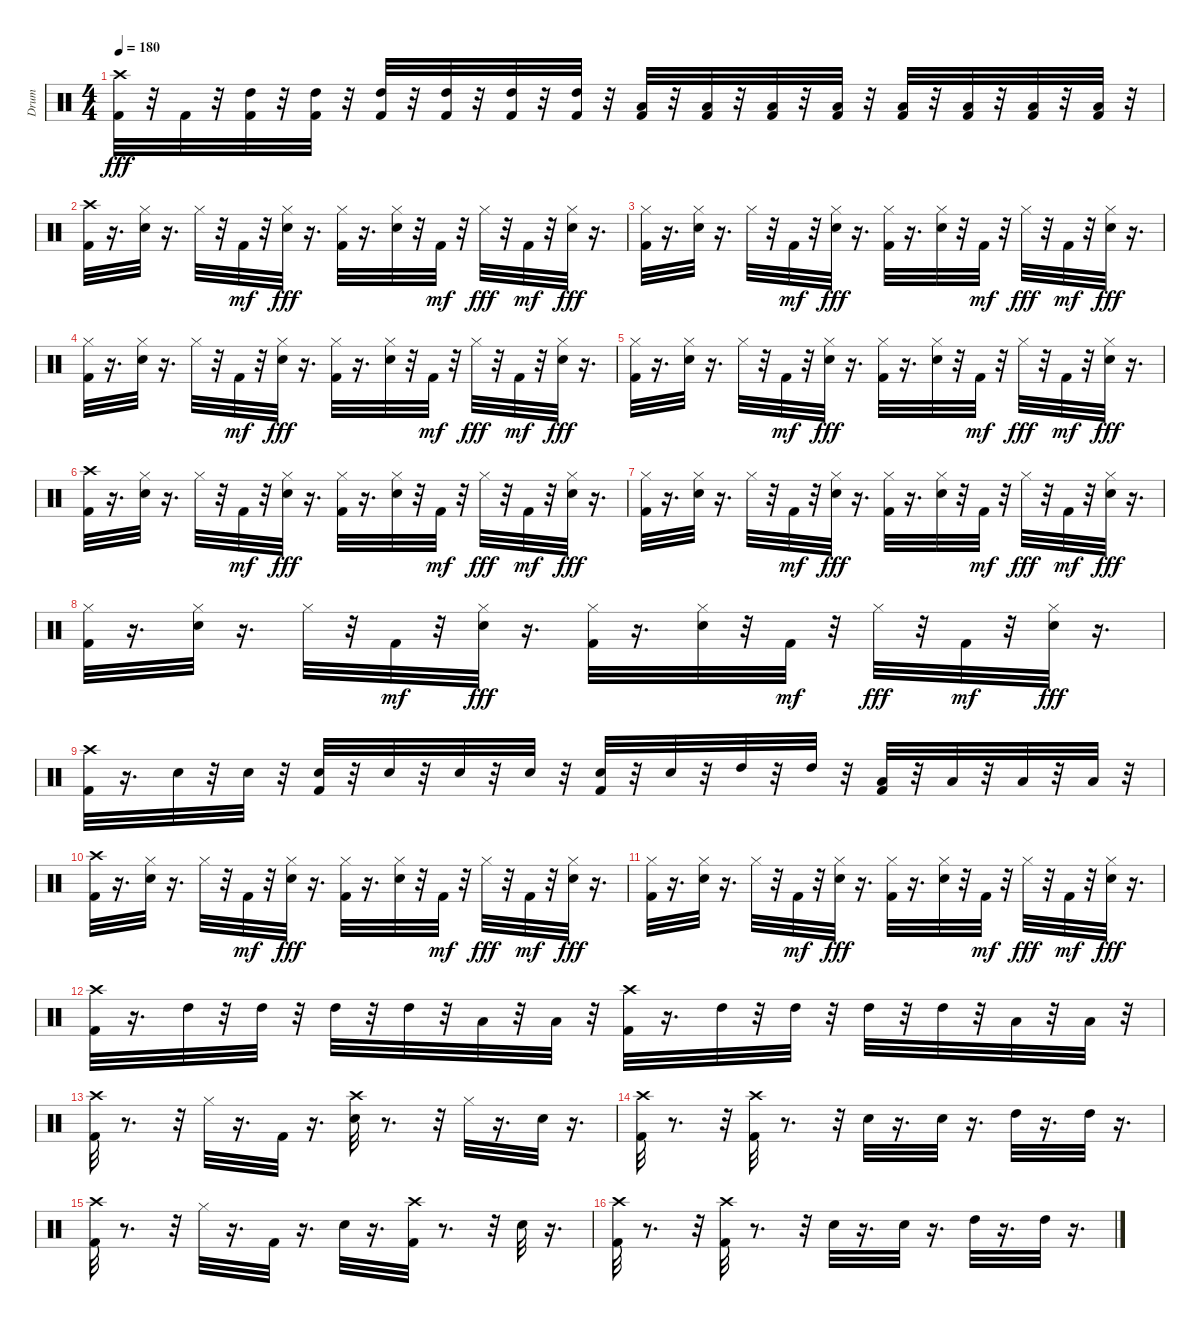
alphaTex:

\track ("Drum" "Drum") {instrument percussion}
\staff {score}
\articulation defaults
\ts (4 4)
\tempo 180
\clef neutral
\ks c
("Kick (hit) 2" "Crash high (hit)").32{dy fff} r.32 "Kick (hit) 2".32 r.32 ("Kick (hit) 2" "High Tom (hit)").32 r.32 ("Kick (hit) 2" "High Tom (hit)").32 r.32 ("Kick (hit) 2" "High Tom (hit)").32 r.32 ("Kick (hit) 2" "High Tom (hit)").32 r.32 ("Kick (hit) 2" "High Tom (hit)").32 r.32 ("Kick (hit) 2" "High Tom (hit)").32 r.32 ("Kick (hit) 2" "Low Tom (hit)").32 r.32 ("Kick (hit) 2" "Low Tom (hit)").32 r.32 ("Kick (hit) 2" "Low Tom (hit)").32 r.32 ("Kick (hit) 2" "Low Tom (hit)").32 r.32 ("Kick (hit) 2" "Low Floor Tom (hit)").32 r.32 ("Kick (hit) 2" "Low Floor Tom (hit)").32 r.32 ("Kick (hit) 2" "Low Floor Tom (hit)").32 r.32 ("Kick (hit) 2" "Low Floor Tom (hit)").32 r.32 |
("Kick (hit) 2" "Crash high (hit)").32 r.16{d} ("Hi-Hat (closed)" "Snare (hit) 2").32 r.16{d} "Hi-Hat (closed)".32 r.32 "Kick (hit) 2".32{dy mf} r.32 ("Hi-Hat (closed)" "Snare (hit) 2").32{dy fff} r.16{d} ("Kick (hit) 2" "Hi-Hat (closed)").32 r.16{d} ("Hi-Hat (closed)" "Snare (hit) 2").32 r.32 "Kick (hit) 2".32{dy mf} r.32 "Hi-Hat (closed)".32{dy fff} r.32 "Kick (hit) 2".32{dy mf} r.32 ("Hi-Hat (closed)" "Snare (hit) 2").32{dy fff} r.16{d} |
("Kick (hit) 2" "Hi-Hat (closed)").32 r.16{d} ("Hi-Hat (closed)" "Snare (hit) 2").32 r.16{d} "Hi-Hat (closed)".32 r.32 "Kick (hit) 2".32{dy mf} r.32 ("Hi-Hat (closed)" "Snare (hit) 2").32{dy fff} r.16{d} ("Kick (hit) 2" "Hi-Hat (closed)").32 r.16{d} ("Hi-Hat (closed)" "Snare (hit) 2").32 r.32 "Kick (hit) 2".32{dy mf} r.32 "Hi-Hat (closed)".32{dy fff} r.32 "Kick (hit) 2".32{dy mf} r.32 ("Hi-Hat (closed)" "Snare (hit) 2").32{dy fff} r.16{d} |
("Kick (hit) 2" "Hi-Hat (closed)").32 r.16{d} ("Hi-Hat (closed)" "Snare (hit) 2").32 r.16{d} "Hi-Hat (closed)".32 r.32 "Kick (hit) 2".32{dy mf} r.32 ("Hi-Hat (closed)" "Snare (hit) 2").32{dy fff} r.16{d} ("Kick (hit) 2" "Hi-Hat (closed)").32 r.16{d} ("Hi-Hat (closed)" "Snare (hit) 2").32 r.32 "Kick (hit) 2".32{dy mf} r.32 "Hi-Hat (closed)".32{dy fff} r.32 "Kick (hit) 2".32{dy mf} r.32 ("Hi-Hat (closed)" "Snare (hit) 2").32{dy fff} r.16{d} |
("Kick (hit) 2" "Hi-Hat (closed)").32 r.16{d} ("Hi-Hat (closed)" "Snare (hit) 2").32 r.16{d} "Hi-Hat (closed)".32 r.32 "Kick (hit) 2".32{dy mf} r.32 ("Hi-Hat (closed)" "Snare (hit) 2").32{dy fff} r.16{d} ("Kick (hit) 2" "Hi-Hat (closed)").32 r.16{d} ("Hi-Hat (closed)" "Snare (hit) 2").32 r.32 "Kick (hit) 2".32{dy mf} r.32 "Hi-Hat (closed)".32{dy fff} r.32 "Kick (hit) 2".32{dy mf} r.32 ("Hi-Hat (closed)" "Snare (hit) 2").32{dy fff} r.16{d} |
("Kick (hit) 2" "Crash high (hit)").32 r.16{d} ("Hi-Hat (closed)" "Snare (hit) 2").32 r.16{d} "Hi-Hat (closed)".32 r.32 "Kick (hit) 2".32{dy mf} r.32 ("Hi-Hat (closed)" "Snare (hit) 2").32{dy fff} r.16{d} ("Kick (hit) 2" "Hi-Hat (closed)").32 r.16{d} ("Hi-Hat (closed)" "Snare (hit) 2").32 r.32 "Kick (hit) 2".32{dy mf} r.32 "Hi-Hat (closed)".32{dy fff} r.32 "Kick (hit) 2".32{dy mf} r.32 ("Hi-Hat (closed)" "Snare (hit) 2").32{dy fff} r.16{d} |
("Kick (hit) 2" "Hi-Hat (closed)").32 r.16{d} ("Hi-Hat (closed)" "Snare (hit) 2").32 r.16{d} "Hi-Hat (closed)".32 r.32 "Kick (hit) 2".32{dy mf} r.32 ("Hi-Hat (closed)" "Snare (hit) 2").32{dy fff} r.16{d} ("Kick (hit) 2" "Hi-Hat (closed)").32 r.16{d} ("Hi-Hat (closed)" "Snare (hit) 2").32 r.32 "Kick (hit) 2".32{dy mf} r.32 "Hi-Hat (closed)".32{dy fff} r.32 "Kick (hit) 2".32{dy mf} r.32 ("Hi-Hat (closed)" "Snare (hit) 2").32{dy fff} r.16{d} |
("Kick (hit) 2" "Hi-Hat (closed)").32 r.16{d} ("Hi-Hat (closed)" "Snare (hit) 2").32 r.16{d} "Hi-Hat (closed)".32 r.32 "Kick (hit) 2".32{dy mf} r.32 ("Hi-Hat (closed)" "Snare (hit) 2").32{dy fff} r.16{d} ("Kick (hit) 2" "Hi-Hat (closed)").32 r.16{d} ("Hi-Hat (closed)" "Snare (hit) 2").32 r.32 "Kick (hit) 2".32{dy mf} r.32 "Hi-Hat (closed)".32{dy fff} r.32 "Kick (hit) 2".32{dy mf} r.32 ("Hi-Hat (closed)" "Snare (hit) 2").32{dy fff} r.16{d} |
("Kick (hit) 2" "Crash high (hit)").32 r.16{d} "Snare (hit) 2".32 r.32 "Snare (hit) 2".32 r.32 ("Kick (hit) 2" "Snare (hit) 2").32 r.32 "Snare (hit) 2".32 r.32 "Snare (hit) 2".32 r.32 "Snare (hit) 2".32 r.32 ("Kick (hit) 2" "Snare (hit) 2").32 r.32 "Snare (hit) 2".32 r.32 "High Tom (hit)".32 r.32 "High Tom (hit)".32 r.32 ("Kick (hit) 2" "Low Tom (hit)").32 r.32 "Low Tom (hit)".32 r.32 "Low Floor Tom (hit)".32 r.32 "Low Floor Tom (hit)".32 r.32 |
("Kick (hit) 2" "Crash high (hit)").32 r.16{d} ("Hi-Hat (closed)" "Snare (hit) 2").32 r.16{d} "Hi-Hat (closed)".32 r.32 "Kick (hit) 2".32{dy mf} r.32 ("Hi-Hat (closed)" "Snare (hit) 2").32{dy fff} r.16{d} ("Kick (hit) 2" "Hi-Hat (closed)").32 r.16{d} ("Hi-Hat (closed)" "Snare (hit) 2").32 r.32 "Kick (hit) 2".32{dy mf} r.32 "Hi-Hat (closed)".32{dy fff} r.32 "Kick (hit) 2".32{dy mf} r.32 ("Hi-Hat (closed)" "Snare (hit) 2").32{dy fff} r.16{d} |
("Kick (hit) 2" "Hi-Hat (closed)").32 r.16{d} ("Hi-Hat (closed)" "Snare (hit) 2").32 r.16{d} "Hi-Hat (closed)".32 r.32 "Kick (hit) 2".32{dy mf} r.32 ("Hi-Hat (closed)" "Snare (hit) 2").32{dy fff} r.16{d} ("Kick (hit) 2" "Hi-Hat (closed)").32 r.16{d} ("Hi-Hat (closed)" "Snare (hit) 2").32 r.32 "Kick (hit) 2".32{dy mf} r.32 "Hi-Hat (closed)".32{dy fff} r.32 "Kick (hit) 2".32{dy mf} r.32 ("Hi-Hat (closed)" "Snare (hit) 2").32{dy fff} r.16{d} |
("Kick (hit) 2" "Crash high (hit)").32 r.16{d} "High Tom (hit)".32 r.32 "High Tom (hit)".32 r.32 "High Tom (hit)".32 r.32 "High Tom (hit)".32 r.32 "Low Tom (hit)".32 r.32 "Low Tom (hit)".32 r.32 ("Kick (hit) 2" "Crash high (hit)").32 r.16{d} "High Tom (hit)".32 r.32 "High Tom (hit)".32 r.32 "High Tom (hit)".32 r.32 "High Tom (hit)".32 r.32 "Low Tom (hit)".32 r.32 "Low Tom (hit)".32 r.32 |
("Kick (hit) 2" "Crash high (hit)").32 r.8{d} r.32 "Hi-Hat (closed)".32 r.16{d} "Kick (hit) 2".32 r.16{d} ("Crash high (hit)" "Snare (hit) 2").32 r.8{d} r.32 "Hi-Hat (closed)".32 r.16{d} "Snare (hit) 2".32 r.16{d} |
("Kick (hit) 2" "Crash high (hit)").32 r.8{d} r.32 ("Kick (hit) 2" "Crash high (hit)").32 r.8{d} r.32 "Snare (hit) 2".32 r.16{d} "Snare (hit) 2".32 r.16{d} "High Tom (hit)".32 r.16{d} "High Tom (hit)".32 r.16{d} |
("Kick (hit) 2" "Crash high (hit)").32 r.8{d} r.32 "Hi-Hat (closed)".32 r.16{d} "Kick (hit) 2".32 r.16{d} "Snare (hit) 2".32 r.16{d} ("Kick (hit) 2" "Crash high (hit)").32 r.8{d} r.32 "Snare (hit) 2".32 r.16{d} |
("Kick (hit) 2" "Crash high (hit)").32 r.8{d} r.32 ("Kick (hit) 2" "Crash high (hit)").32 r.8{d} r.32 "Snare (hit) 2".32 r.16{d} "Snare (hit) 2".32 r.16{d} "High Tom (hit)".32 r.16{d} "High Tom (hit)".32 r.16{d}
